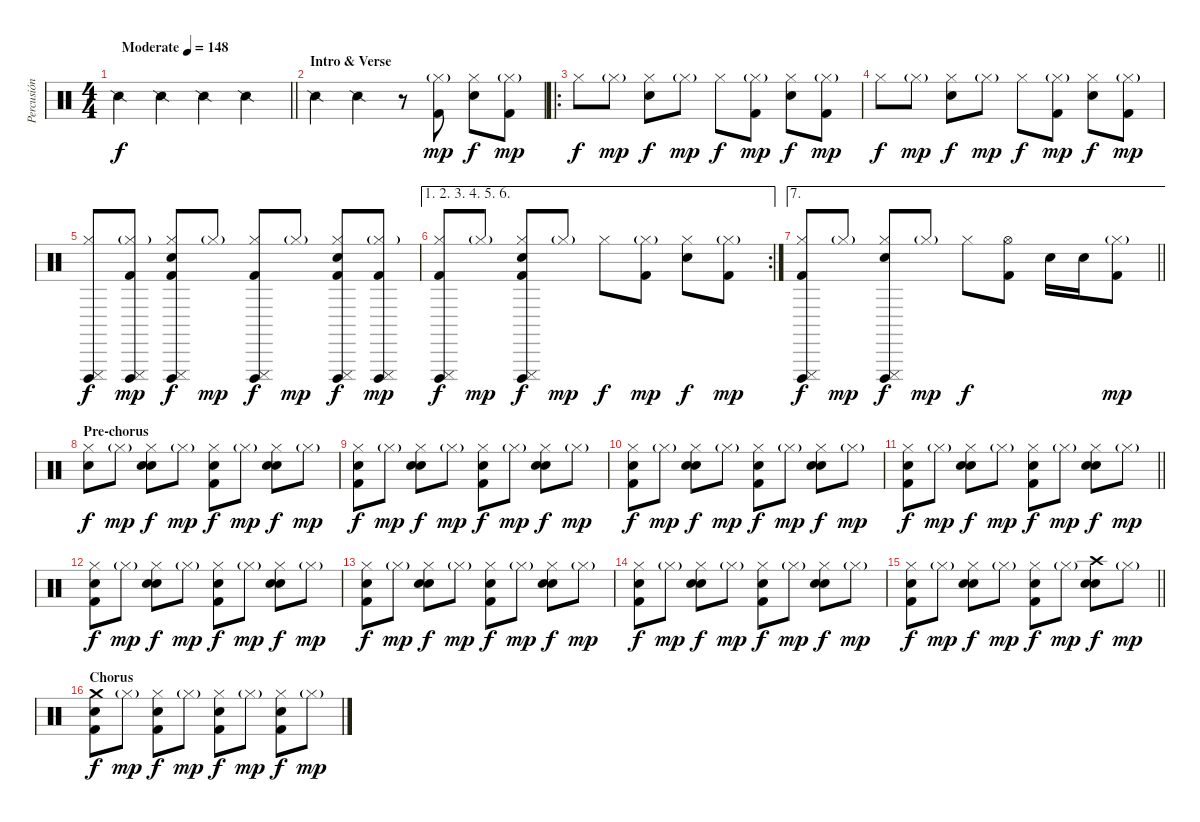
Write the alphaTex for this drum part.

\track ("Percusión" "Percusión") {instrument percussion}
\staff {score}
\articulation defaults
\ts (4 4)
\tempo (148 "Moderate")
\clef neutral
\barLineRight lightlight
\ks c "Snare (side stick) 2".4{dy f} "Snare (side stick) 2".4 "Snare (side stick) 2".4 "Snare (side stick) 2".4
|
\section ("" "Intro & Verse")
"Snare (side stick) 2".4 "Snare (side stick) 2".4 r.8 ("Hi-Hat (closed)"{g} "Kick (hit) 2").8{dy mp} ("Hi-Hat (closed)" "Snare (hit) 2").8{dy f} ("Hi-Hat (closed)"{g} "Kick (hit) 2").8{dy mp} |
\ro "Hi-Hat (closed)".8{dy f} "Hi-Hat (closed)"{g}.8{dy mp}
("Hi-Hat (closed)" "Snare (hit) 2").8{dy f} "Hi-Hat (closed)"{g}.8{dy mp} "Hi-Hat (closed)".8{dy f} ("Hi-Hat (closed)"{g} "Kick (hit) 2").8{dy mp} ("Hi-Hat (closed)" "Snare (hit) 2").8{dy f} ("Hi-Hat (closed)"{g} "Kick (hit) 2").8{dy mp} |
"Hi-Hat (closed)".8{dy f} "Hi-Hat (closed)"{g}.8{dy mp} ("Hi-Hat (closed)" "Snare (hit) 2").8{dy f} "Hi-Hat (closed)"{g}.8{dy mp} "Hi-Hat (closed)".8{dy f} ("Hi-Hat (closed)"{g} "Kick (hit) 2").8{dy mp} ("Hi-Hat (closed)" "Snare (hit) 2").8{dy f} ("Hi-Hat (closed)"{g} "Kick (hit) 2").8{dy mp} |
("Hi-Hat (closed)" "Cuica (open)" "Cuica (mute)").8{dy f} ("Hi-Hat (closed)"{g} "Cuica (open)" "Cuica (mute)" "Kick (hit) 2").8{dy mp} ("Hi-Hat (closed)" "Cuica (open)" "Cuica (mute)" "Snare (hit) 2" "Kick (hit) 2").8{dy f} "Hi-Hat (closed)"{g}.8{dy mp} ("Hi-Hat (closed)" "Cuica (open)" "Cuica (mute)" "Kick (hit) 2").8{dy f} "Hi-Hat (closed)"{g}.8{dy mp} ("Hi-Hat (closed)" "Cuica (open)" "Cuica (mute)" "Snare (hit) 2" "Kick (hit) 2").8{dy f} ("Hi-Hat (closed)"{g} "Cuica (open)" "Cuica (mute)" "Kick (hit) 2").8{dy mp} |
\ae (1 2 3 4 5 6)
\rc 2
("Hi-Hat (closed)" "Cuica (open)" "Cuica (mute)" "Kick (hit) 2").8{dy f} "Hi-Hat (closed)"{g}.8{dy mp} ("Hi-Hat (closed)" "Cuica (open)" "Cuica (mute)" "Snare (hit) 2" "Kick (hit) 2").8{dy f} "Hi-Hat (closed)"{g}.8{dy mp} "Hi-Hat (closed)".8{dy f} ("Hi-Hat (closed)"{g} "Kick (hit) 2").8{dy mp} ("Hi-Hat (closed)" "Snare (hit) 2").8{dy f} ("Hi-Hat (closed)"{g} "Kick (hit) 2").8{dy mp} |
\ae 7
\barLineRight lightlight
("Hi-Hat (closed)" "Cuica (open)" "Cuica (mute)" "Kick (hit) 2").8{dy f} "Hi-Hat (closed)"{g}.8{dy mp} ("Hi-Hat (closed)" "Cuica (open)" "Cuica (mute)" "Snare (hit) 2").8{dy f} "Hi-Hat (closed)"{g}.8{dy mp} "Hi-Hat (closed)".8{dy f} ("Hi-Hat (open)" "Kick (hit) 2").8 "Snare (hit) 2".16 "Snare (hit) 2".16 ("Hi-Hat (closed)"{g} "Kick (hit) 2").8{dy mp} |
\section ("" "Pre-chorus")
("Hi-Hat (closed)" "Hand Clap (hit)").8{dy f} "Hi-Hat (closed)"{g}.8{dy mp} ("Hi-Hat (closed)" "Hand Clap (hit)" "Snare (hit) 2").8{dy f} "Hi-Hat (closed)"{g}.8{dy mp} ("Hi-Hat (closed)" "Hand Clap (hit)" "Kick (hit) 2").8{dy f} "Hi-Hat (closed)"{g}.8{dy mp} ("Hi-Hat (closed)" "Hand Clap (hit)" "Snare (hit) 2").8{dy f} "Hi-Hat (closed)"{g}.8{dy mp} |
("Hi-Hat (closed)" "Hand Clap (hit)" "Kick (hit) 2").8{dy f} "Hi-Hat (closed)"{g}.8{dy mp} ("Hi-Hat (closed)" "Hand Clap (hit)" "Snare (hit) 2").8{dy f} "Hi-Hat (closed)"{g}.8{dy mp} ("Hi-Hat (closed)" "Hand Clap (hit)" "Kick (hit) 2").8{dy f} "Hi-Hat (closed)"{g}.8{dy mp} ("Hi-Hat (closed)" "Hand Clap (hit)" "Snare (hit) 2").8{dy f} "Hi-Hat (closed)"{g}.8{dy mp} |
("Hi-Hat (closed)" "Hand Clap (hit)" "Kick (hit) 2").8{dy f} "Hi-Hat (closed)"{g}.8{dy mp} ("Hi-Hat (closed)" "Hand Clap (hit)" "Snare (hit) 2").8{dy f} "Hi-Hat (closed)"{g}.8{dy mp} ("Hi-Hat (closed)" "Hand Clap (hit)" "Kick (hit) 2").8{dy f} "Hi-Hat (closed)"{g}.8{dy mp} ("Hi-Hat (closed)" "Hand Clap (hit)" "Snare (hit) 2").8{dy f} "Hi-Hat (closed)"{g}.8{dy mp} |
\barLineRight lightlight
("Hi-Hat (closed)" "Hand Clap (hit)" "Kick (hit) 2").8{dy f} "Hi-Hat (closed)"{g}.8{dy mp} ("Hi-Hat (closed)" "Hand Clap (hit)" "Snare (hit) 2").8{dy f} "Hi-Hat (closed)"{g}.8{dy mp} ("Hi-Hat (closed)" "Hand Clap (hit)" "Kick (hit) 2").8{dy f} "Hi-Hat (closed)"{g}.8{dy mp} ("Hi-Hat (closed)" "Hand Clap (hit)" "Snare (hit) 2").8{dy f} "Hi-Hat (closed)"{g}.8{dy mp} |
("Hi-Hat (closed)" "Hand Clap (hit)" "Kick (hit) 2").8{dy f} "Hi-Hat (closed)"{g}.8{dy mp} ("Hi-Hat (closed)" "Hand Clap (hit)" "Snare (hit) 2").8{dy f} "Hi-Hat (closed)"{g}.8{dy mp} ("Hi-Hat (closed)" "Hand Clap (hit)" "Kick (hit) 2").8{dy f} "Hi-Hat (closed)"{g}.8{dy mp} ("Hi-Hat (closed)" "Hand Clap (hit)" "Snare (hit) 2").8{dy f} "Hi-Hat (closed)"{g}.8{dy mp} |
("Hi-Hat (closed)" "Hand Clap (hit)" "Kick (hit) 2").8{dy f} "Hi-Hat (closed)"{g}.8{dy mp} ("Hi-Hat (closed)" "Hand Clap (hit)" "Snare (hit) 2").8{dy f} "Hi-Hat (closed)"{g}.8{dy mp} ("Hi-Hat (closed)" "Hand Clap (hit)" "Kick (hit) 2").8{dy f} "Hi-Hat (closed)"{g}.8{dy mp} ("Hi-Hat (closed)" "Hand Clap (hit)" "Snare (hit) 2").8{dy f} "Hi-Hat (closed)"{g}.8{dy mp} |
("Hi-Hat (closed)" "Hand Clap (hit)" "Kick (hit) 2").8{dy f} "Hi-Hat (closed)"{g}.8{dy mp} ("Hi-Hat (closed)" "Hand Clap (hit)" "Snare (hit) 2").8{dy f} "Hi-Hat (closed)"{g}.8{dy mp} ("Hi-Hat (closed)" "Hand Clap (hit)" "Kick (hit) 2").8{dy f} "Hi-Hat (closed)"{g}.8{dy mp} ("Hi-Hat (closed)" "Hand Clap (hit)" "Snare (hit) 2").8{dy f} "Hi-Hat (closed)"{g}.8{dy mp} |
\barLineRight lightlight
("Hi-Hat (closed)" "Hand Clap (hit)" "Kick (hit) 2").8{dy f} "Hi-Hat (closed)"{g}.8{dy mp} ("Hi-Hat (closed)" "Hand Clap (hit)" "Snare (hit) 2").8{dy f} "Hi-Hat (closed)"{g}.8{dy mp} ("Hi-Hat (closed)" "Hand Clap (hit)" "Kick (hit) 2").8{dy f} "Hi-Hat (closed)"{g}.8{dy mp} ("Crash high (hit)" "Hand Clap (hit)" "Snare (hit) 2").8{dy f} "Hi-Hat (closed)"{g}.8{dy mp} |
\section ("" "Chorus")
("Crash medium (hit)" "Snare (hit) 2" "Kick (hit) 2").8{dy f} "Hi-Hat (closed)"{g}.8{dy mp} ("Hi-Hat (closed)" "Snare (hit) 2" "Kick (hit) 2").8{dy f} "Hi-Hat (closed)"{g}.8{dy mp} ("Hi-Hat (closed)" "Snare (hit) 2" "Kick (hit) 2").8{dy f} "Hi-Hat (closed)"{g}.8{dy mp} ("Hi-Hat (closed)" "Snare (hit) 2" "Kick (hit) 2").8{dy f} "Hi-Hat (closed)"{g}.8{dy mp}
